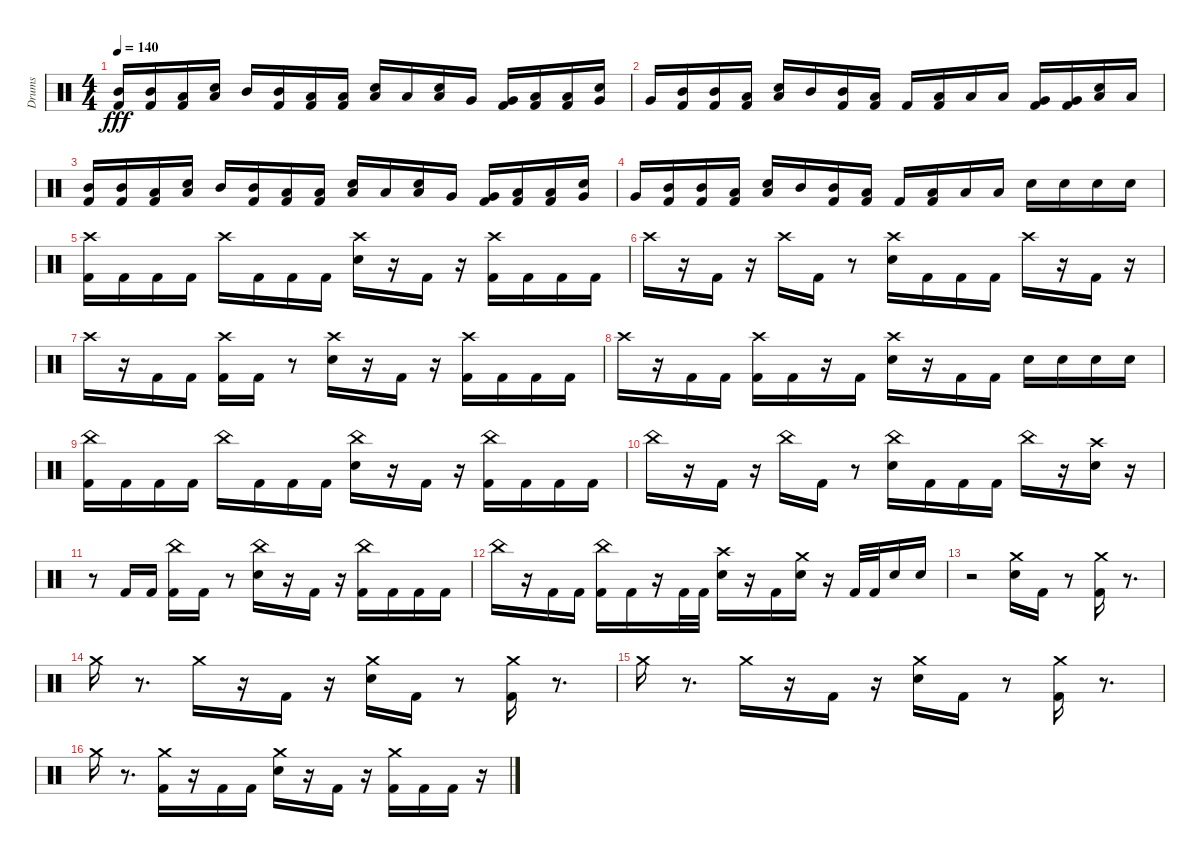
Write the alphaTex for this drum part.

\track ("Drums" "Drums") {instrument percussion}
\staff {score}
\articulation defaults
\ts (4 4)
\tempo 140
\clef neutral
\ks c
("Kick (hit) 2" "Mid Tom (hit)").16{dy fff} ("Kick (hit) 2" "Mid Tom (hit)").16 ("Kick (hit) 2" "Low Tom (hit)").16 ("Snare (hit) 2" "Low Tom (hit)").16 "Mid Tom (hit)".16 ("Kick (hit) 2" "Mid Tom (hit)").16 ("Kick (hit) 2" "Low Tom (hit)").16 ("Kick (hit) 2" "Low Tom (hit)").16 ("Snare (hit) 2" "Low Tom (hit)").16 "Low Tom (hit)".16 ("Snare (hit) 2" "Low Tom (hit)").16 "Very Low Tom (hit)".16 ("Kick (hit) 2" "Very Low Tom (hit)").16 ("Kick (hit) 2" "Low Tom (hit)").16 ("Kick (hit) 2" "Low Tom (hit)").16 ("Snare (hit) 2" "Very Low Tom (hit)").16 |
"Very Low Tom (hit)".16 ("Kick (hit) 2" "Mid Tom (hit)").16 ("Kick (hit) 2" "Mid Tom (hit)").16 ("Kick (hit) 2" "Low Tom (hit)").16 ("Snare (hit) 2" "Low Tom (hit)").16 "Mid Tom (hit)".16 ("Kick (hit) 2" "Mid Tom (hit)").16 ("Kick (hit) 2" "Low Tom (hit)").16 "Kick (hit) 2".16 ("Kick (hit) 2" "Low Tom (hit)").16 "Low Tom (hit)".16 "Low Tom (hit)".16 ("Kick (hit) 2" "Very Low Tom (hit)").16 ("Kick (hit) 2" "Very Low Tom (hit)").16 ("Snare (hit) 2" "Low Tom (hit)").16 "Low Tom (hit)".16 |
("Kick (hit) 2" "Mid Tom (hit)").16 ("Kick (hit) 2" "Mid Tom (hit)").16 ("Kick (hit) 2" "Low Tom (hit)").16 ("Snare (hit) 2" "Low Tom (hit)").16 "Mid Tom (hit)".16 ("Kick (hit) 2" "Mid Tom (hit)").16 ("Kick (hit) 2" "Low Tom (hit)").16 ("Kick (hit) 2" "Low Tom (hit)").16 ("Snare (hit) 2" "Low Tom (hit)").16 "Low Tom (hit)".16 ("Snare (hit) 2" "Low Tom (hit)").16 "Very Low Tom (hit)".16 ("Kick (hit) 2" "Very Low Tom (hit)").16 ("Kick (hit) 2" "Low Tom (hit)").16 ("Kick (hit) 2" "Low Tom (hit)").16 ("Snare (hit) 2" "Very Low Tom (hit)").16 |
"Very Low Tom (hit)".16 ("Kick (hit) 2" "Mid Tom (hit)").16 ("Kick (hit) 2" "Mid Tom (hit)").16 ("Kick (hit) 2" "Low Tom (hit)").16 ("Snare (hit) 2" "Low Tom (hit)").16 "Mid Tom (hit)".16 ("Kick (hit) 2" "Mid Tom (hit)").16 ("Kick (hit) 2" "Low Tom (hit)").16 "Kick (hit) 2".16 ("Kick (hit) 2" "Low Tom (hit)").16 "Low Tom (hit)".16 "Low Tom (hit)".16 "Snare (hit) 2".16 "Snare (hit) 2".16 "Snare (hit) 2".16 "Snare (hit) 2".16 |
("Crash high (hit)" "Kick (hit) 2").16 "Kick (hit) 2".16 "Kick (hit) 2".16 "Kick (hit) 2".16 "Crash high (hit)".16 "Kick (hit) 2".16 "Kick (hit) 2".16 "Kick (hit) 2".16 ("Crash high (hit)" "Snare (hit) 2").16 r.16 "Kick (hit) 2".16 r.16 ("Crash high (hit)" "Kick (hit) 2").16 "Kick (hit) 2".16 "Kick (hit) 2".16 "Kick (hit) 2".16 |
"Crash high (hit)".16 r.16 "Kick (hit) 2".16 r.16 "Crash high (hit)".16 "Kick (hit) 2".16 r.8 ("Crash high (hit)" "Snare (hit) 2").16 "Kick (hit) 2".16 "Kick (hit) 2".16 "Kick (hit) 2".16 "Crash high (hit)".16 r.16 "Kick (hit) 2".16 r.16 |
"Crash high (hit)".16 r.16 "Kick (hit) 2".16 "Kick (hit) 2".16 ("Crash high (hit)" "Kick (hit) 2").16 "Kick (hit) 2".16 r.8 ("Crash high (hit)" "Snare (hit) 2").16 r.16 "Kick (hit) 2".16 r.16 ("Crash high (hit)" "Kick (hit) 2").16 "Kick (hit) 2".16 "Kick (hit) 2".16 "Kick (hit) 2".16 |
"Crash high (hit)".16 r.16 "Kick (hit) 2".16 "Kick (hit) 2".16 ("Crash high (hit)" "Kick (hit) 2").16 "Kick (hit) 2".16 r.16 "Kick (hit) 2".16 ("Crash high (hit)" "Snare (hit) 2").16 r.16 "Kick (hit) 2".16 "Kick (hit) 2".16 "Snare (hit) 2".16 "Snare (hit) 2".16 "Snare (hit) 2".16 "Snare (hit) 2".16 |
("Kick (hit) 2" "China (hit)").16 "Kick (hit) 2".16 "Kick (hit) 2".16 "Kick (hit) 2".16 "China (hit)".16 "Kick (hit) 2".16 "Kick (hit) 2".16 "Kick (hit) 2".16 ("Snare (hit) 2" "China (hit)").16 r.16 "Kick (hit) 2".16 r.16 ("Kick (hit) 2" "China (hit)").16 "Kick (hit) 2".16 "Kick (hit) 2".16 "Kick (hit) 2".16 |
"China (hit)".16 r.16 "Kick (hit) 2".16 r.16 "China (hit)".16 "Kick (hit) 2".16 r.8 ("Snare (hit) 2" "China (hit)").16 "Kick (hit) 2".16 "Kick (hit) 2".16 "Kick (hit) 2".16 "China (hit)".16 r.16 ("Crash high (hit)" "Snare (hit) 2").16 r.16 |
r.8 "Kick (hit) 2".16 "Kick (hit) 2".16 ("Kick (hit) 2" "China (hit)").16 "Kick (hit) 2".16 r.8 ("Snare (hit) 2" "China (hit)").16 r.16 "Kick (hit) 2".16 r.16 ("Kick (hit) 2" "China (hit)").16 "Kick (hit) 2".16 "Kick (hit) 2".16 "Kick (hit) 2".16 |
"China (hit)".16 r.16 "Kick (hit) 2".16 "Kick (hit) 2".16 ("Kick (hit) 2" "China (hit)").16 "Kick (hit) 2".16 r.16 "Kick (hit) 2".32 "Kick (hit) 2".32 ("Snare (hit) 2" "Crash high (hit)").16 r.16 "Kick (hit) 2".16 ("Crash medium (hit)" "Snare (hit) 2").16 r.16 "Kick (hit) 2".32 "Kick (hit) 2".32 "Snare (hit) 2".16 "Snare (hit) 2".16 |
r.2 ("Crash medium (hit)" "Snare (hit) 2").16 "Kick (hit) 2".16 r.8 ("Crash medium (hit)" "Kick (hit) 2").16 r.8{d} |
"Crash medium (hit)".16 r.8{d} "Crash medium (hit)".16 r.16 "Kick (hit) 2".16 r.16 ("Crash medium (hit)" "Snare (hit) 2").16 "Kick (hit) 2".16 r.8 ("Crash medium (hit)" "Kick (hit) 2").16 r.8{d} |
"Crash medium (hit)".16 r.8{d} "Crash medium (hit)".16 r.16 "Kick (hit) 2".16 r.16 ("Crash medium (hit)" "Snare (hit) 2").16 "Kick (hit) 2".16 r.8 ("Crash medium (hit)" "Kick (hit) 2").16 r.8{d} |
"Crash medium (hit)".16 r.8{d} ("Crash medium (hit)" "Kick (hit) 2").16 r.16 "Kick (hit) 2".16 "Kick (hit) 2".16 ("Crash medium (hit)" "Snare (hit) 2").16 r.16 "Kick (hit) 2".16 r.16 ("Crash medium (hit)" "Kick (hit) 2").16 "Kick (hit) 2".16 "Kick (hit) 2".16 r.16
